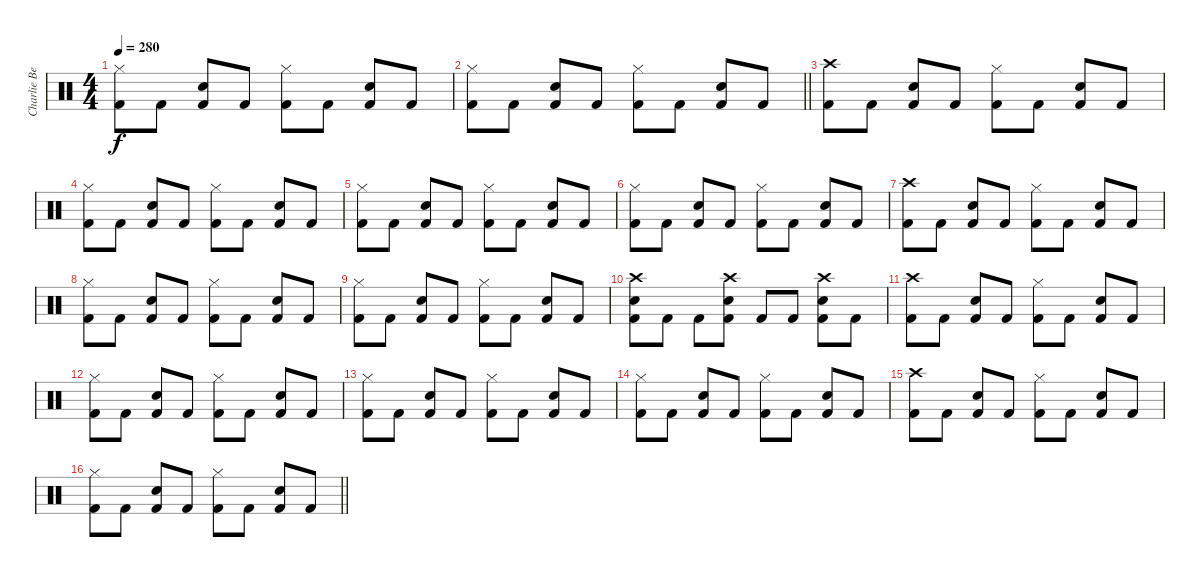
\track ("Charlie Benante" "Charlie Be") {instrument percussion}
\staff {score}
\articulation defaults
\ts (4 4)
\tempo 280
\clef neutral
\ks c
("Hi-Hat (closed)" "Kick (hit) 2").8{dy f} "Kick (hit) 2".8 ("Snare (hit) 2" "Kick (hit) 2").8 "Kick (hit) 2".8 ("Hi-Hat (closed)" "Kick (hit) 2").8 "Kick (hit) 2".8 ("Snare (hit) 2" "Kick (hit) 2").8 "Kick (hit) 2".8 |
\barLineRight lightlight
("Hi-Hat (closed)" "Kick (hit) 2").8 "Kick (hit) 2".8 ("Snare (hit) 2" "Kick (hit) 2").8 "Kick (hit) 2".8 ("Hi-Hat (closed)" "Kick (hit) 2").8 "Kick (hit) 2".8 ("Snare (hit) 2" "Kick (hit) 2").8 "Kick (hit) 2".8 |
("Crash high (hit)" "Kick (hit) 2").8 "Kick (hit) 2".8 ("Snare (hit) 2" "Kick (hit) 2").8 "Kick (hit) 2".8 ("Hi-Hat (closed)" "Kick (hit) 2").8 "Kick (hit) 2".8 ("Snare (hit) 2" "Kick (hit) 2").8 "Kick (hit) 2".8 |
("Hi-Hat (closed)" "Kick (hit) 2").8 "Kick (hit) 2".8 ("Snare (hit) 2" "Kick (hit) 2").8 "Kick (hit) 2".8 ("Hi-Hat (closed)" "Kick (hit) 2").8 "Kick (hit) 2".8 ("Snare (hit) 2" "Kick (hit) 2").8 "Kick (hit) 2".8 |
("Hi-Hat (closed)" "Kick (hit) 2").8 "Kick (hit) 2".8 ("Snare (hit) 2" "Kick (hit) 2").8 "Kick (hit) 2".8 ("Hi-Hat (closed)" "Kick (hit) 2").8 "Kick (hit) 2".8 ("Snare (hit) 2" "Kick (hit) 2").8 "Kick (hit) 2".8 |
("Hi-Hat (closed)" "Kick (hit) 2").8 "Kick (hit) 2".8 ("Snare (hit) 2" "Kick (hit) 2").8 "Kick (hit) 2".8 ("Hi-Hat (closed)" "Kick (hit) 2").8 "Kick (hit) 2".8 ("Snare (hit) 2" "Kick (hit) 2").8 "Kick (hit) 2".8 |
("Crash high (hit)" "Kick (hit) 2").8 "Kick (hit) 2".8 ("Snare (hit) 2" "Kick (hit) 2").8 "Kick (hit) 2".8 ("Hi-Hat (closed)" "Kick (hit) 2").8 "Kick (hit) 2".8 ("Snare (hit) 2" "Kick (hit) 2").8 "Kick (hit) 2".8 |
("Hi-Hat (closed)" "Kick (hit) 2").8 "Kick (hit) 2".8 ("Snare (hit) 2" "Kick (hit) 2").8 "Kick (hit) 2".8 ("Hi-Hat (closed)" "Kick (hit) 2").8 "Kick (hit) 2".8 ("Snare (hit) 2" "Kick (hit) 2").8 "Kick (hit) 2".8 |
("Hi-Hat (closed)" "Kick (hit) 2").8 "Kick (hit) 2".8 ("Snare (hit) 2" "Kick (hit) 2").8 "Kick (hit) 2".8 ("Hi-Hat (closed)" "Kick (hit) 2").8 "Kick (hit) 2".8 ("Snare (hit) 2" "Kick (hit) 2").8 "Kick (hit) 2".8 |
("Crash high (hit)" "Snare (hit) 2" "Kick (hit) 2").8 "Kick (hit) 2".8 "Kick (hit) 2".8 ("Crash high (hit)" "Snare (hit) 2" "Kick (hit) 2").8 "Kick (hit) 2".8 "Kick (hit) 2".8 ("Crash high (hit)" "Snare (hit) 2" "Kick (hit) 2").8 "Kick (hit) 2".8 |
("Crash high (hit)" "Kick (hit) 2").8 "Kick (hit) 2".8 ("Snare (hit) 2" "Kick (hit) 2").8 "Kick (hit) 2".8 ("Hi-Hat (closed)" "Kick (hit) 2").8 "Kick (hit) 2".8 ("Snare (hit) 2" "Kick (hit) 2").8 "Kick (hit) 2".8 |
("Hi-Hat (closed)" "Kick (hit) 2").8 "Kick (hit) 2".8 ("Snare (hit) 2" "Kick (hit) 2").8 "Kick (hit) 2".8 ("Hi-Hat (closed)" "Kick (hit) 2").8 "Kick (hit) 2".8 ("Snare (hit) 2" "Kick (hit) 2").8 "Kick (hit) 2".8 |
("Hi-Hat (closed)" "Kick (hit) 2").8 "Kick (hit) 2".8 ("Snare (hit) 2" "Kick (hit) 2").8 "Kick (hit) 2".8 ("Hi-Hat (closed)" "Kick (hit) 2").8 "Kick (hit) 2".8 ("Snare (hit) 2" "Kick (hit) 2").8 "Kick (hit) 2".8 |
("Hi-Hat (closed)" "Kick (hit) 2").8 "Kick (hit) 2".8 ("Snare (hit) 2" "Kick (hit) 2").8 "Kick (hit) 2".8 ("Hi-Hat (closed)" "Kick (hit) 2").8 "Kick (hit) 2".8 ("Snare (hit) 2" "Kick (hit) 2").8 "Kick (hit) 2".8 |
("Crash high (hit)" "Kick (hit) 2").8 "Kick (hit) 2".8 ("Snare (hit) 2" "Kick (hit) 2").8 "Kick (hit) 2".8 ("Hi-Hat (closed)" "Kick (hit) 2").8 "Kick (hit) 2".8 ("Snare (hit) 2" "Kick (hit) 2").8 "Kick (hit) 2".8 |
\barLineRight lightlight
("Hi-Hat (closed)" "Kick (hit) 2").8 "Kick (hit) 2".8 ("Snare (hit) 2" "Kick (hit) 2").8 "Kick (hit) 2".8 ("Hi-Hat (closed)" "Kick (hit) 2").8 "Kick (hit) 2".8 ("Snare (hit) 2" "Kick (hit) 2").8 "Kick (hit) 2".8
